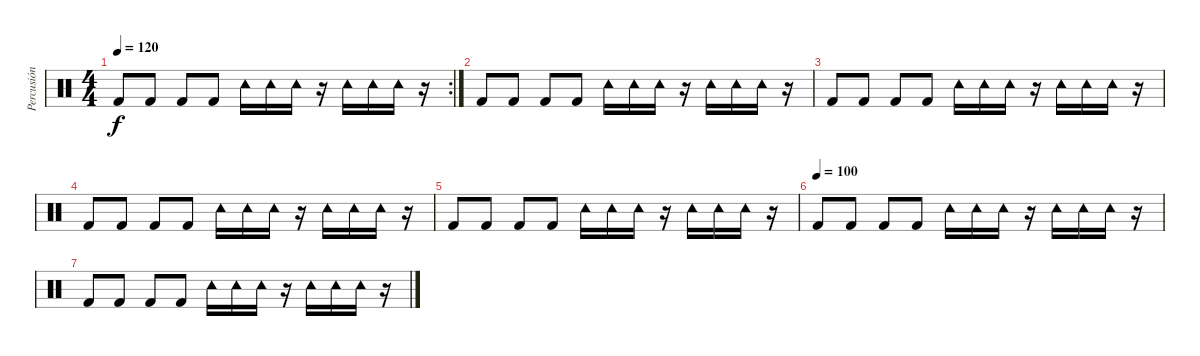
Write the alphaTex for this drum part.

\track ("Percusión" "Percusión") {instrument percussion}
\staff {score}
\articulation defaults
\rc 2
\ts (4 4)
\tempo 120
\clef neutral
\ks c "Kick (hit) 2".8{dy f} "Kick (hit) 2".8 "Kick (hit) 2".8 "Kick (hit) 2".8 "Tambourine (hit)".16 "Tambourine (hit)".16 "Tambourine (hit)".16
r.16 "Tambourine (hit)".16 "Tambourine (hit)".16 "Tambourine (hit)".16 r.16 |
"Kick (hit) 2".8 "Kick (hit) 2".8 "Kick (hit) 2".8 "Kick (hit) 2".8 "Tambourine (hit)".16 "Tambourine (hit)".16 "Tambourine (hit)".16 r.16 "Tambourine (hit)".16 "Tambourine (hit)".16 "Tambourine (hit)".16 r.16 |
"Kick (hit) 2".8 "Kick (hit) 2".8 "Kick (hit) 2".8 "Kick (hit) 2".8 "Tambourine (hit)".16 "Tambourine (hit)".16 "Tambourine (hit)".16 r.16 "Tambourine (hit)".16 "Tambourine (hit)".16 "Tambourine (hit)".16 r.16 |
"Kick (hit) 2".8 "Kick (hit) 2".8 "Kick (hit) 2".8 "Kick (hit) 2".8 "Tambourine (hit)".16 "Tambourine (hit)".16 "Tambourine (hit)".16 r.16 "Tambourine (hit)".16 "Tambourine (hit)".16 "Tambourine (hit)".16 r.16 |
"Kick (hit) 2".8 "Kick (hit) 2".8 "Kick (hit) 2".8 "Kick (hit) 2".8 "Tambourine (hit)".16 "Tambourine (hit)".16 "Tambourine (hit)".16 r.16 "Tambourine (hit)".16 "Tambourine (hit)".16 "Tambourine (hit)".16 r.16 |
\tempo (100)
"Kick (hit) 2".8 "Kick (hit) 2".8 "Kick (hit) 2".8 "Kick (hit) 2".8 "Tambourine (hit)".16 "Tambourine (hit)".16 "Tambourine (hit)".16 r.16 "Tambourine (hit)".16 "Tambourine (hit)".16 "Tambourine (hit)".16 r.16 |
"Kick (hit) 2".8 "Kick (hit) 2".8 "Kick (hit) 2".8 "Kick (hit) 2".8 "Tambourine (hit)".16 "Tambourine (hit)".16 "Tambourine (hit)".16 r.16 "Tambourine (hit)".16 "Tambourine (hit)".16 "Tambourine (hit)".16 r.16
